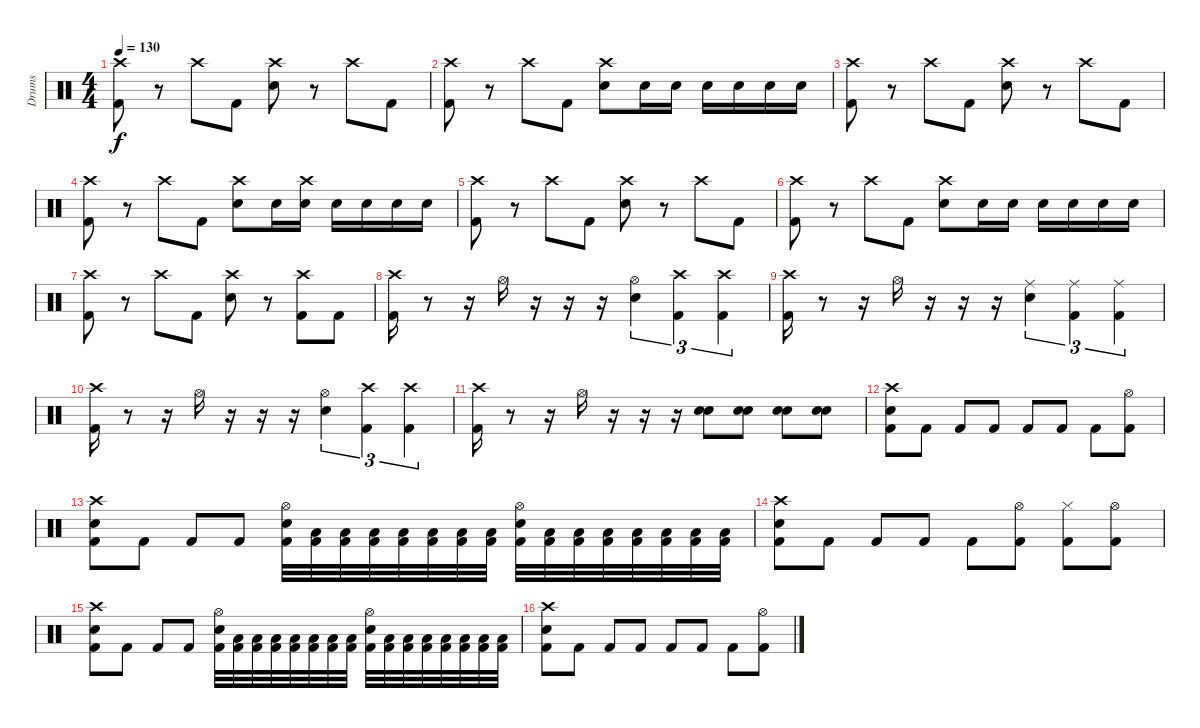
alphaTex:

\track ("Drums" "Drums") {instrument percussion}
\staff {score}
\articulation defaults
\ts (4 4)
\tempo 130
\clef neutral
\ks c
("Crash high (hit)" "Kick (hit) 2").8{dy f} r.8 "Crash high (hit)".8 "Kick (hit) 2".8 ("Crash high (hit)" "Electric Snare (hit)").8 r.8 "Crash high (hit)".8 "Kick (hit) 2".8 |
("Crash high (hit)" "Kick (hit) 2").8 r.8 "Crash high (hit)".8 "Kick (hit) 2".8 ("Crash high (hit)" "Electric Snare (hit)").8 "Electric Snare (hit)".16 "Electric Snare (hit)".16 "Electric Snare (hit)".16 "Electric Snare (hit)".16 "Electric Snare (hit)".16 "Electric Snare (hit)".16 |
("Crash high (hit)" "Kick (hit) 2").8 r.8 "Crash high (hit)".8 "Kick (hit) 2".8 ("Crash high (hit)" "Electric Snare (hit)").8 r.8 "Crash high (hit)".8 "Kick (hit) 2".8 |
("Crash high (hit)" "Kick (hit) 2").8 r.8 "Crash high (hit)".8 "Kick (hit) 2".8 ("Crash high (hit)" "Electric Snare (hit)").8 "Electric Snare (hit)".16 ("Crash high (hit)" "Electric Snare (hit)").16 "Electric Snare (hit)".16 "Electric Snare (hit)".16 "Electric Snare (hit)".16 "Electric Snare (hit)".16 |
("Crash high (hit)" "Kick (hit) 2").8 r.8 "Crash high (hit)".8 "Kick (hit) 2".8 ("Crash high (hit)" "Electric Snare (hit)").8 r.8 "Crash high (hit)".8 "Kick (hit) 2".8 |
("Crash high (hit)" "Kick (hit) 2").8 r.8 "Crash high (hit)".8 "Kick (hit) 2".8 ("Crash high (hit)" "Electric Snare (hit)").8 "Electric Snare (hit)".16 "Electric Snare (hit)".16 "Electric Snare (hit)".16 "Electric Snare (hit)".16 "Electric Snare (hit)".16 "Electric Snare (hit)".16 |
("Crash high (hit)" "Kick (hit) 2").8 r.8 "Crash high (hit)".8 "Kick (hit) 2".8 ("Crash high (hit)" "Electric Snare (hit)").8 r.8 ("Crash high (hit)" "Kick (hit) 2").8 "Kick (hit) 2".8 |
("Crash high (hit)" "Kick (hit) 2").16 r.8 r.16 "Hi-Hat (open)".16 r.16 r.16 r.16 ("Hi-Hat (open)" "Electric Snare (hit)").4{tu (3 2)} ("Crash high (hit)" "Kick (hit) 2").4{tu (3 2)} ("Crash high (hit)" "Kick (hit) 2").4{tu (3 2)} |
("Crash high (hit)" "Kick (hit) 2").16 r.8 r.16 "Hi-Hat (open)".16 r.16 r.16 r.16 ("Ride (middle)" "Electric Snare (hit)").4{tu (3 2)} ("Ride (middle)" "Kick (hit) 2").4{tu (3 2)} ("Ride (middle)" "Kick (hit) 2").4{tu (3 2)} |
("Crash high (hit)" "Kick (hit) 2").16 r.8 r.16 "Hi-Hat (open)".16 r.16 r.16 r.16 ("Hi-Hat (open)" "Electric Snare (hit)").4{tu (3 2)} ("Crash high (hit)" "Kick (hit) 2").4{tu (3 2)} ("Crash high (hit)" "Kick (hit) 2").4{tu (3 2)} |
("Crash high (hit)" "Kick (hit) 2").16 r.8 r.16 "Hi-Hat (open)".16 r.16 r.16 r.16 ("Snare (hit) 2" "Electric Snare (hit)").8 ("Snare (hit) 2" "Electric Snare (hit)").8 ("Snare (hit) 2" "Electric Snare (hit)").8 ("Snare (hit) 2" "Electric Snare (hit)").8 |
("Crash high (hit)" "Electric Snare (hit)" "Kick (hit) 2").8 "Kick (hit) 2".8 "Kick (hit) 2".8 "Kick (hit) 2".8 "Kick (hit) 2".8 "Kick (hit) 2".8 "Kick (hit) 2".8 ("Hi-Hat (open)" "Kick (hit) 2").8 |
("Crash high (hit)" "Electric Snare (hit)" "Kick (hit) 2").8 "Kick (hit) 2".8 "Kick (hit) 2".8 "Kick (hit) 2".8 ("Hi-Hat (open)" "Electric Snare (hit)" "Kick (hit) 2").32 ("Low Floor Tom (hit)" "Kick (hit) 2").32 ("Low Floor Tom (hit)" "Kick (hit) 2").32 ("Low Floor Tom (hit)" "Kick (hit) 2").32 ("Low Floor Tom (hit)" "Kick (hit) 2").32 ("Low Floor Tom (hit)" "Kick (hit) 2").32 ("Low Floor Tom (hit)" "Kick (hit) 2").32 ("Low Floor Tom (hit)" "Kick (hit) 2").32 ("Hi-Hat (open)" "Electric Snare (hit)" "Kick (hit) 2").32 ("Low Floor Tom (hit)" "Kick (hit) 2").32 ("Low Floor Tom (hit)" "Kick (hit) 2").32 ("Low Floor Tom (hit)" "Kick (hit) 2").32 ("Low Floor Tom (hit)" "Kick (hit) 2").32 ("Low Floor Tom (hit)" "Kick (hit) 2").32 ("Low Floor Tom (hit)" "Kick (hit) 2").32 ("Low Floor Tom (hit)" "Kick (hit) 2").32 |
("Crash high (hit)" "Electric Snare (hit)" "Kick (hit) 2").8 "Kick (hit) 2".8 "Kick (hit) 2".8 "Kick (hit) 2".8 "Kick (hit) 2".8 ("Hi-Hat (open)" "Kick (hit) 2").8 ("Hi-Hat (closed)" "Kick (hit) 2").8 ("Hi-Hat (open)" "Kick (hit) 2").8 |
("Crash high (hit)" "Electric Snare (hit)" "Kick (hit) 2").8 "Kick (hit) 2".8 "Kick (hit) 2".8 "Kick (hit) 2".8 ("Hi-Hat (open)" "Electric Snare (hit)" "Kick (hit) 2").32 ("Low Floor Tom (hit)" "Kick (hit) 2").32 ("Low Floor Tom (hit)" "Kick (hit) 2").32 ("Low Floor Tom (hit)" "Kick (hit) 2").32 ("Low Floor Tom (hit)" "Kick (hit) 2").32 ("Low Floor Tom (hit)" "Kick (hit) 2").32 ("Low Floor Tom (hit)" "Kick (hit) 2").32 ("Low Floor Tom (hit)" "Kick (hit) 2").32 ("Hi-Hat (open)" "Electric Snare (hit)" "Kick (hit) 2").32 ("Low Floor Tom (hit)" "Kick (hit) 2").32 ("Low Floor Tom (hit)" "Kick (hit) 2").32 ("Low Floor Tom (hit)" "Kick (hit) 2").32 ("Low Floor Tom (hit)" "Kick (hit) 2").32 ("Low Floor Tom (hit)" "Kick (hit) 2").32 ("Low Floor Tom (hit)" "Kick (hit) 2").32 ("Low Floor Tom (hit)" "Kick (hit) 2").32 |
("Crash high (hit)" "Electric Snare (hit)" "Kick (hit) 2").8 "Kick (hit) 2".8 "Kick (hit) 2".8 "Kick (hit) 2".8 "Kick (hit) 2".8 "Kick (hit) 2".8 "Kick (hit) 2".8 ("Hi-Hat (open)" "Kick (hit) 2").8
